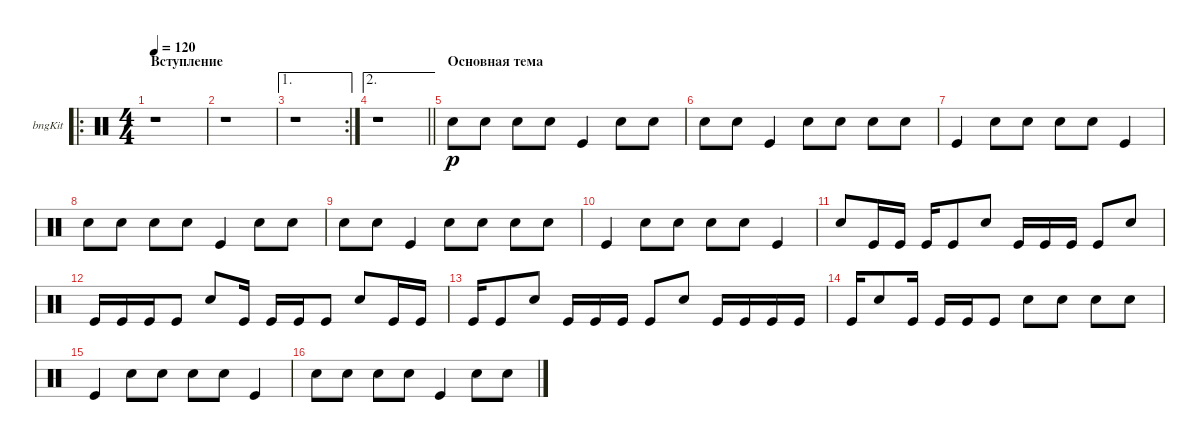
\bracketExtendMode groupsimilarinstruments
\firstSystemTrackNameOrientation horizontal
\otherSystemsTrackNameOrientation horizontal
\track ("Bongos" "bngKit") {instrument percussion}
\staff {score}
\articulation defaults
\ro
\ts (4 4)
\beaming (8 2 2 2 2)
\section ("" "Вступление")
\tempo 120
\clef neutral
\ks c
r.1{dy p} |
r.1 |
\ae 1
\rc 2
r.1 |
\ae 2
\barLineRight lightlight
r.1 |
\section ("" "Основная тема")
"Snare (hit) 2".8 "Snare (hit) 2".8 "Snare (hit) 2".8 "Snare (hit) 2".8 "Kick (hit)".4 "Snare (hit) 2".8 "Snare (hit) 2".8 |
"Snare (hit) 2".8 "Snare (hit) 2".8 "Kick (hit)".4 "Snare (hit) 2".8 "Snare (hit) 2".8 "Snare (hit) 2".8 "Snare (hit) 2".8 |
"Kick (hit)".4 "Snare (hit) 2".8 "Snare (hit) 2".8 "Snare (hit) 2".8 "Snare (hit) 2".8 "Kick (hit)".4 |
"Snare (hit) 2".8 "Snare (hit) 2".8 "Snare (hit) 2".8 "Snare (hit) 2".8 "Kick (hit)".4 "Snare (hit) 2".8 "Snare (hit) 2".8 |
"Snare (hit) 2".8 "Snare (hit) 2".8 "Kick (hit)".4 "Snare (hit) 2".8 "Snare (hit) 2".8 "Snare (hit) 2".8 "Snare (hit) 2".8 |
"Kick (hit)".4 "Snare (hit) 2".8 "Snare (hit) 2".8 "Snare (hit) 2".8 "Snare (hit) 2".8 "Kick (hit)".4 |
"Snare (hit) 2".8 "Kick (hit)".16 "Kick (hit)".16 "Kick (hit)".16 "Kick (hit)".8 "Snare (hit) 2".8 "Kick (hit)".16 "Kick (hit)".16 "Kick (hit)".16 "Kick (hit)".8 "Snare (hit) 2".8 |
"Kick (hit)".16 "Kick (hit)".16 "Kick (hit)".16 "Kick (hit)".8 "Snare (hit) 2".8 "Kick (hit)".16 "Kick (hit)".16 "Kick (hit)".16 "Kick (hit)".8 "Snare (hit) 2".8 "Kick (hit)".16 "Kick (hit)".16 |
"Kick (hit)".16 "Kick (hit)".8 "Snare (hit) 2".8 "Kick (hit)".16 "Kick (hit)".16 "Kick (hit)".16 "Kick (hit)".8 "Snare (hit) 2".8 "Kick (hit)".16 "Kick (hit)".16 "Kick (hit)".16 "Kick (hit)".16 |
"Kick (hit)".16 "Snare (hit) 2".8 "Kick (hit)".16 "Kick (hit)".16 "Kick (hit)".16 "Kick (hit)".8 "Snare (hit) 2".8 "Snare (hit) 2".8 "Snare (hit) 2".8 "Snare (hit) 2".8 |
"Kick (hit)".4 "Snare (hit) 2".8 "Snare (hit) 2".8 "Snare (hit) 2".8 "Snare (hit) 2".8 "Kick (hit)".4 |
"Snare (hit) 2".8 "Snare (hit) 2".8 "Snare (hit) 2".8 "Snare (hit) 2".8 "Kick (hit)".4 "Snare (hit) 2".8 "Snare (hit) 2".8
